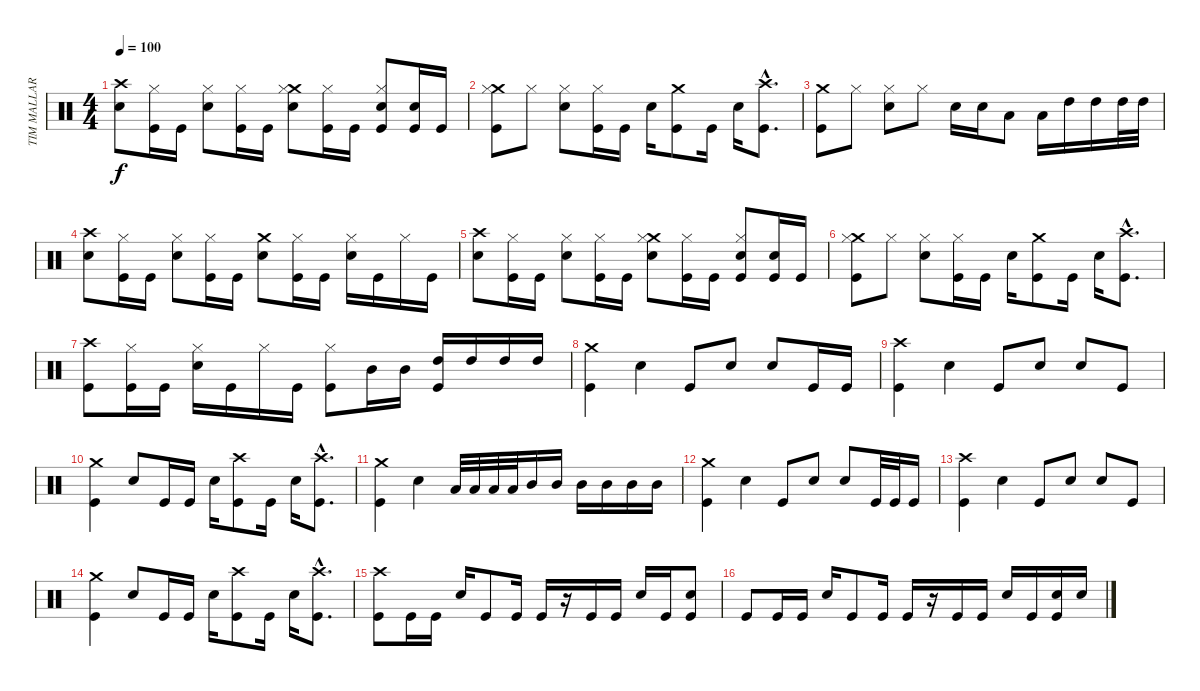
\track ("TIM MALLARE - drums" "TIM MALLAR") {instrument percussion}
\staff {score}
\articulation defaults
\ts (4 4)
\tempo 100
\clef neutral
\ks c
("Crash high (hit)" "Electric Snare (hit)").8{dy f} ("Hi-Hat (closed)" "Kick (hit)").16 "Kick (hit)".16 ("Hi-Hat (closed)" "Electric Snare (hit)").8 ("Hi-Hat (closed)" "Kick (hit)").16 "Kick (hit)".16 ("Crash medium (hit)" "Hi-Hat (closed)" "Electric Snare (hit)").8 ("Hi-Hat (closed)" "Kick (hit)").16 "Kick (hit)".16 ("Hi-Hat (closed)" "Electric Snare (hit)" "Kick (hit)").8 ("Electric Snare (hit)" "Kick (hit)").16 "Kick (hit)".16 |
("Crash medium (hit)" "Hi-Hat (closed)" "Kick (hit)").8 "Hi-Hat (closed)".8 ("Hi-Hat (closed)" "Electric Snare (hit)").8 ("Hi-Hat (closed)" "Kick (hit)").16 "Kick (hit)".16 "Electric Snare (hit)".16 ("Crash medium (hit)" "Kick (hit)").8 "Kick (hit)".16 "Electric Snare (hit)".16 ("Crash high (hit)"{hac} "Kick (hit)"{hac}).8{d} |
("Crash medium (hit)" "Kick (hit)").8 "Hi-Hat (closed)".8 ("Electric Snare (hit)" "Hi-Hat (closed)").8 "Hi-Hat (closed)".8 "Electric Snare (hit)".16 "Electric Snare (hit)".16 "Low Tom (hit)".8 "Low Tom (hit)".16 "High Tom (hit)".16 "High Tom (hit)".16 "High Tom (hit)".32 "High Tom (hit)".32 |
("Crash high (hit)" "Electric Snare (hit)").8 ("Hi-Hat (closed)" "Kick (hit)").16 "Kick (hit)".16 ("Hi-Hat (closed)" "Electric Snare (hit)").8 ("Hi-Hat (closed)" "Kick (hit)").16 "Kick (hit)".16 ("Crash medium (hit)" "Electric Snare (hit)").8 ("Hi-Hat (closed)" "Kick (hit)").16 "Kick (hit)".16 ("Hi-Hat (closed)" "Electric Snare (hit)").16 "Kick (hit)".16 "Hi-Hat (closed)".16 "Kick (hit)".16 |
("Crash high (hit)" "Electric Snare (hit)").8 ("Hi-Hat (closed)" "Kick (hit)").16 "Kick (hit)".16 ("Hi-Hat (closed)" "Electric Snare (hit)").8 ("Hi-Hat (closed)" "Kick (hit)").16 "Kick (hit)".16 ("Crash medium (hit)" "Hi-Hat (closed)" "Electric Snare (hit)").8 ("Hi-Hat (closed)" "Kick (hit)").16 "Kick (hit)".16 ("Hi-Hat (closed)" "Electric Snare (hit)" "Kick (hit)").8 ("Electric Snare (hit)" "Kick (hit)").16 "Kick (hit)".16 |
("Crash medium (hit)" "Hi-Hat (closed)" "Kick (hit)").8 "Hi-Hat (closed)".8 ("Hi-Hat (closed)" "Electric Snare (hit)").8 ("Hi-Hat (closed)" "Kick (hit)").16 "Kick (hit)".16 "Electric Snare (hit)".16 ("Crash medium (hit)" "Kick (hit)").8 "Kick (hit)".16 "Electric Snare (hit)".16 ("Crash high (hit)"{hac} "Kick (hit)"{hac}).8{d} |
("Crash high (hit)" "Kick (hit)").8 ("Hi-Hat (closed)" "Kick (hit)").16 "Kick (hit)".16 ("Hi-Hat (closed)" "Electric Snare (hit)").16 "Kick (hit)".16 "Hi-Hat (closed)".16 "Kick (hit)".16 ("Hi-Hat (closed)" "Kick (hit)").8 "Mid Tom (hit)".16 "Mid Tom (hit)".16 ("High Tom (hit)" "Kick (hit)").16 "High Tom (hit)".16 "High Tom (hit)".16 "High Tom (hit)".16 |
("Crash medium (hit)" "Kick (hit)").4 "Electric Snare (hit)".4 "Kick (hit)".8 "Electric Snare (hit)".8 "Electric Snare (hit)".8 "Kick (hit)".16 "Kick (hit)".16 |
("Crash high (hit)" "Kick (hit)").4 "Electric Snare (hit)".4 "Kick (hit)".8 "Electric Snare (hit)".8 "Electric Snare (hit)".8 "Kick (hit)".8 |
("Crash medium (hit)" "Kick (hit)").4 "Electric Snare (hit)".8 "Kick (hit)".16 "Kick (hit)".16 "Electric Snare (hit)".16 ("Crash high (hit)" "Kick (hit)").8 "Kick (hit)".16 "Electric Snare (hit)".16 ("Crash high (hit)"{hac} "Kick (hit)"{hac}).8{d} |
("Crash medium (hit)" "Kick (hit)").4 "Electric Snare (hit)".4 "Low Tom (hit)".32 "Low Tom (hit)".32 "Low Tom (hit)".32 "Low Tom (hit)".32 "Mid Tom (hit)".16 "Mid Tom (hit)".16 "Mid Tom (hit)".16 "Mid Tom (hit)".16 "Mid Tom (hit)".16 "Mid Tom (hit)".16 |
("Crash medium (hit)" "Kick (hit)").4 "Electric Snare (hit)".4 "Kick (hit)".8 "Electric Snare (hit)".8 "Electric Snare (hit)".8 "Kick (hit)".32 "Kick (hit)".32 "Kick (hit)".16 |
("Crash high (hit)" "Kick (hit)").4 "Electric Snare (hit)".4 "Kick (hit)".8 "Electric Snare (hit)".8 "Electric Snare (hit)".8 "Kick (hit)".8 |
("Crash medium (hit)" "Kick (hit)").4 "Electric Snare (hit)".8 "Kick (hit)".16 "Kick (hit)".16 "Electric Snare (hit)".16 ("Crash high (hit)" "Kick (hit)").8 "Kick (hit)".16 "Electric Snare (hit)".16 ("Crash high (hit)"{hac} "Kick (hit)"{hac}).8{d} |
("Crash high (hit)" "Kick (hit)").8 "Kick (hit)".16 "Kick (hit)".16 "Electric Snare (hit)".16 "Kick (hit)".8 "Kick (hit)".16 "Kick (hit)".16 r.16 "Kick (hit)".16 "Kick (hit)".16 "Electric Snare (hit)".16 "Kick (hit)".16 ("Electric Snare (hit)" "Kick (hit)").8 |
"Kick (hit)".8 "Kick (hit)".16 "Kick (hit)".16 "Electric Snare (hit)".16 "Kick (hit)".8 "Kick (hit)".16 "Kick (hit)".16 r.16 "Kick (hit)".16 "Kick (hit)".16 "Electric Snare (hit)".16 "Kick (hit)".16 ("Electric Snare (hit)" "Kick (hit)").16 "Electric Snare (hit)".16
